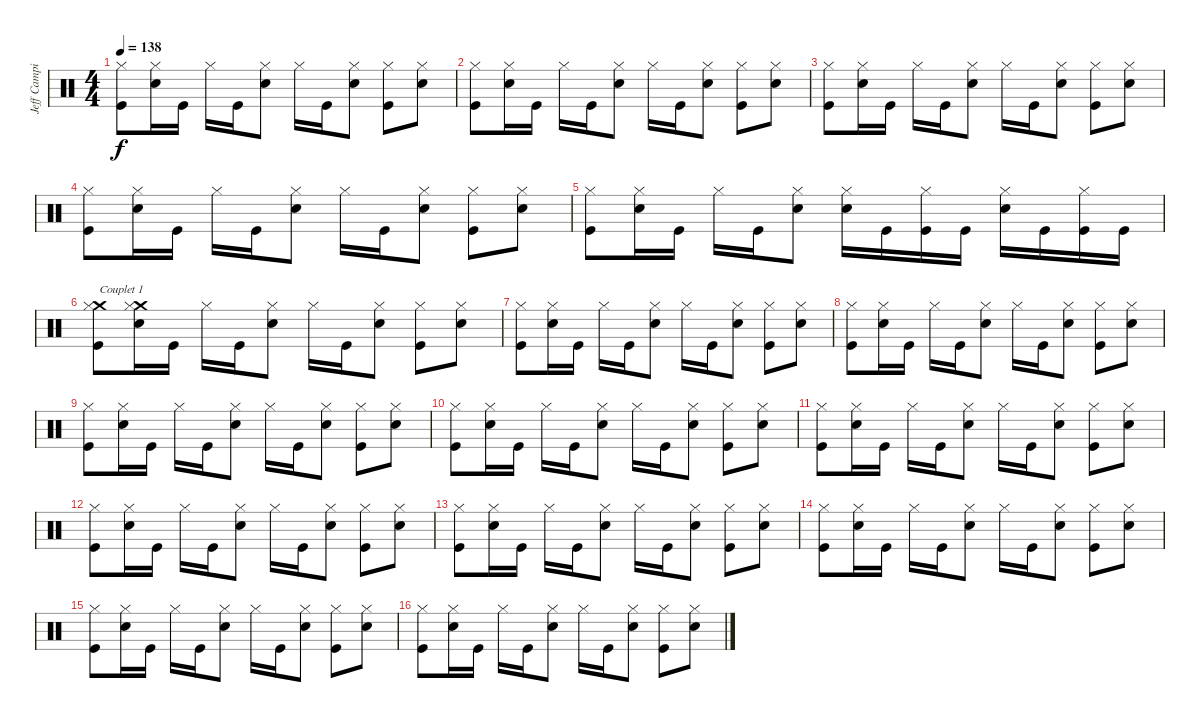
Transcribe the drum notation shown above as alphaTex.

\track ("Jeff Campitelli" "Jeff Campi") {instrument percussion}
\staff {score}
\articulation defaults
\ts (4 4)
\tempo 138
\clef neutral
\ks c
("Hi-Hat (closed)" "Kick (hit)").8{dy f} ("Electric Snare (hit)" "Hi-Hat (closed)").16 "Kick (hit)".16 "Hi-Hat (closed)".16 "Kick (hit)".16 ("Electric Snare (hit)" "Hi-Hat (closed)").8 "Hi-Hat (closed)".16 "Kick (hit)".16 ("Electric Snare (hit)" "Hi-Hat (closed)").8 ("Hi-Hat (closed)" "Kick (hit)").8 ("Electric Snare (hit)" "Hi-Hat (closed)").8 |
("Hi-Hat (closed)" "Kick (hit)").8 ("Electric Snare (hit)" "Hi-Hat (closed)").16 "Kick (hit)".16 "Hi-Hat (closed)".16 "Kick (hit)".16 ("Electric Snare (hit)" "Hi-Hat (closed)").8 "Hi-Hat (closed)".16 "Kick (hit)".16 ("Electric Snare (hit)" "Hi-Hat (closed)").8 ("Hi-Hat (closed)" "Kick (hit)").8 ("Electric Snare (hit)" "Hi-Hat (closed)").8 |
("Hi-Hat (closed)" "Kick (hit)").8 ("Electric Snare (hit)" "Hi-Hat (closed)").16 "Kick (hit)".16 "Hi-Hat (closed)".16 "Kick (hit)".16 ("Electric Snare (hit)" "Hi-Hat (closed)").8 "Hi-Hat (closed)".16 "Kick (hit)".16 ("Electric Snare (hit)" "Hi-Hat (closed)").8 ("Hi-Hat (closed)" "Kick (hit)").8 ("Electric Snare (hit)" "Hi-Hat (closed)").8 |
("Hi-Hat (closed)" "Kick (hit)").8 ("Electric Snare (hit)" "Hi-Hat (closed)").16 "Kick (hit)".16 "Hi-Hat (closed)".16 "Kick (hit)".16 ("Electric Snare (hit)" "Hi-Hat (closed)").8 "Hi-Hat (closed)".16 "Kick (hit)".16 ("Electric Snare (hit)" "Hi-Hat (closed)").8 ("Hi-Hat (closed)" "Kick (hit)").8 ("Electric Snare (hit)" "Hi-Hat (closed)").8 |
("Hi-Hat (closed)" "Kick (hit)").8 ("Electric Snare (hit)" "Hi-Hat (closed)").16 "Kick (hit)".16 "Hi-Hat (closed)".16 "Kick (hit)".16 ("Electric Snare (hit)" "Hi-Hat (closed)").8 ("Electric Snare (hit)" "Hi-Hat (closed)").16 "Kick (hit)".16 ("Hi-Hat (closed)" "Kick (hit)").16 "Kick (hit)".16 ("Electric Snare (hit)" "Hi-Hat (closed)").16 "Kick (hit)".16 ("Hi-Hat (closed)" "Kick (hit)").16 "Kick (hit)".16 |
("Crash medium (hit)" "Hi-Hat (closed)" "Kick (hit)").8{txt "Couplet 1"} ("Crash medium (hit)" "Electric Snare (hit)" "Hi-Hat (closed)").16 "Kick (hit)".16 "Hi-Hat (closed)".16 "Kick (hit)".16 ("Electric Snare (hit)" "Hi-Hat (closed)").8 "Hi-Hat (closed)".16 "Kick (hit)".16 ("Electric Snare (hit)" "Hi-Hat (closed)").8 ("Hi-Hat (closed)" "Kick (hit)").8 ("Electric Snare (hit)" "Hi-Hat (closed)").8 |
("Hi-Hat (closed)" "Kick (hit)").8 ("Electric Snare (hit)" "Hi-Hat (closed)").16 "Kick (hit)".16 "Hi-Hat (closed)".16 "Kick (hit)".16 ("Electric Snare (hit)" "Hi-Hat (closed)").8 "Hi-Hat (closed)".16 "Kick (hit)".16 ("Electric Snare (hit)" "Hi-Hat (closed)").8 ("Hi-Hat (closed)" "Kick (hit)").8 ("Electric Snare (hit)" "Hi-Hat (closed)").8 |
("Hi-Hat (closed)" "Kick (hit)").8 ("Electric Snare (hit)" "Hi-Hat (closed)").16 "Kick (hit)".16 "Hi-Hat (closed)".16 "Kick (hit)".16 ("Electric Snare (hit)" "Hi-Hat (closed)").8 "Hi-Hat (closed)".16 "Kick (hit)".16 ("Electric Snare (hit)" "Hi-Hat (closed)").8 ("Hi-Hat (closed)" "Kick (hit)").8 ("Electric Snare (hit)" "Hi-Hat (closed)").8 |
("Hi-Hat (closed)" "Kick (hit)").8 ("Electric Snare (hit)" "Hi-Hat (closed)").16 "Kick (hit)".16 "Hi-Hat (closed)".16 "Kick (hit)".16 ("Electric Snare (hit)" "Hi-Hat (closed)").8 "Hi-Hat (closed)".16 "Kick (hit)".16 ("Electric Snare (hit)" "Hi-Hat (closed)").8 ("Hi-Hat (closed)" "Kick (hit)").8 ("Electric Snare (hit)" "Hi-Hat (closed)").8 |
("Hi-Hat (closed)" "Kick (hit)").8 ("Electric Snare (hit)" "Hi-Hat (closed)").16 "Kick (hit)".16 "Hi-Hat (closed)".16 "Kick (hit)".16 ("Electric Snare (hit)" "Hi-Hat (closed)").8 "Hi-Hat (closed)".16 "Kick (hit)".16 ("Electric Snare (hit)" "Hi-Hat (closed)").8 ("Hi-Hat (closed)" "Kick (hit)").8 ("Electric Snare (hit)" "Hi-Hat (closed)").8 |
("Hi-Hat (closed)" "Kick (hit)").8 ("Electric Snare (hit)" "Hi-Hat (closed)").16 "Kick (hit)".16 "Hi-Hat (closed)".16 "Kick (hit)".16 ("Electric Snare (hit)" "Hi-Hat (closed)").8 "Hi-Hat (closed)".16 "Kick (hit)".16 ("Electric Snare (hit)" "Hi-Hat (closed)").8 ("Hi-Hat (closed)" "Kick (hit)").8 ("Electric Snare (hit)" "Hi-Hat (closed)").8 |
("Hi-Hat (closed)" "Kick (hit)").8 ("Electric Snare (hit)" "Hi-Hat (closed)").16 "Kick (hit)".16 "Hi-Hat (closed)".16 "Kick (hit)".16 ("Electric Snare (hit)" "Hi-Hat (closed)").8 "Hi-Hat (closed)".16 "Kick (hit)".16 ("Electric Snare (hit)" "Hi-Hat (closed)").8 ("Hi-Hat (closed)" "Kick (hit)").8 ("Electric Snare (hit)" "Hi-Hat (closed)").8 |
("Hi-Hat (closed)" "Kick (hit)").8 ("Electric Snare (hit)" "Hi-Hat (closed)").16 "Kick (hit)".16 "Hi-Hat (closed)".16 "Kick (hit)".16 ("Electric Snare (hit)" "Hi-Hat (closed)").8 "Hi-Hat (closed)".16 "Kick (hit)".16 ("Electric Snare (hit)" "Hi-Hat (closed)").8 ("Hi-Hat (closed)" "Kick (hit)").8 ("Electric Snare (hit)" "Hi-Hat (closed)").8 |
("Hi-Hat (closed)" "Kick (hit)").8 ("Electric Snare (hit)" "Hi-Hat (closed)").16 "Kick (hit)".16 "Hi-Hat (closed)".16 "Kick (hit)".16 ("Electric Snare (hit)" "Hi-Hat (closed)").8 "Hi-Hat (closed)".16 "Kick (hit)".16 ("Electric Snare (hit)" "Hi-Hat (closed)").8 ("Hi-Hat (closed)" "Kick (hit)").8 ("Electric Snare (hit)" "Hi-Hat (closed)").8 |
("Hi-Hat (closed)" "Kick (hit)").8 ("Electric Snare (hit)" "Hi-Hat (closed)").16 "Kick (hit)".16 "Hi-Hat (closed)".16 "Kick (hit)".16 ("Electric Snare (hit)" "Hi-Hat (closed)").8 "Hi-Hat (closed)".16 "Kick (hit)".16 ("Electric Snare (hit)" "Hi-Hat (closed)").8 ("Hi-Hat (closed)" "Kick (hit)").8 ("Electric Snare (hit)" "Hi-Hat (closed)").8 |
("Hi-Hat (closed)" "Kick (hit)").8 ("Electric Snare (hit)" "Hi-Hat (closed)").16 "Kick (hit)".16 "Hi-Hat (closed)".16 "Kick (hit)".16 ("Electric Snare (hit)" "Hi-Hat (closed)").8 "Hi-Hat (closed)".16 "Kick (hit)".16 ("Electric Snare (hit)" "Hi-Hat (closed)").8 ("Hi-Hat (closed)" "Kick (hit)").8 ("Electric Snare (hit)" "Hi-Hat (closed)").8
